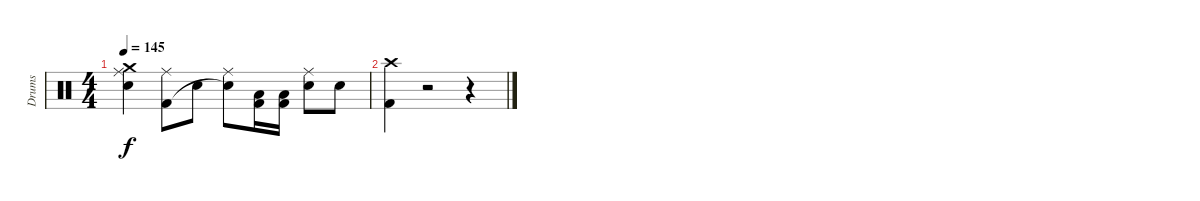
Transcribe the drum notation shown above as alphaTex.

\track ("Drums" "Drums") {instrument percussion}
\staff {score}
\articulation defaults
\ts (4 4)
\tempo 145
\clef neutral
\ks c
("Ride (middle)" "Electric Snare (hit)" "Crash medium (hit)").4{dy f} ("Ride (middle)" "Kick (hit) 2").8 "Electric Snare (hit)".8 ("Ride (middle)" "Electric Snare (hit)"{t}).8 ("Low Floor Tom (hit)" "Kick (hit) 2").16 ("Low Floor Tom (hit)" "Kick (hit) 2").16 ("Ride (middle)" "Electric Snare (hit)").8 "Electric Snare (hit)".8 |
("Kick (hit) 2" "Crash high (hit)").4 r.2 r.4
